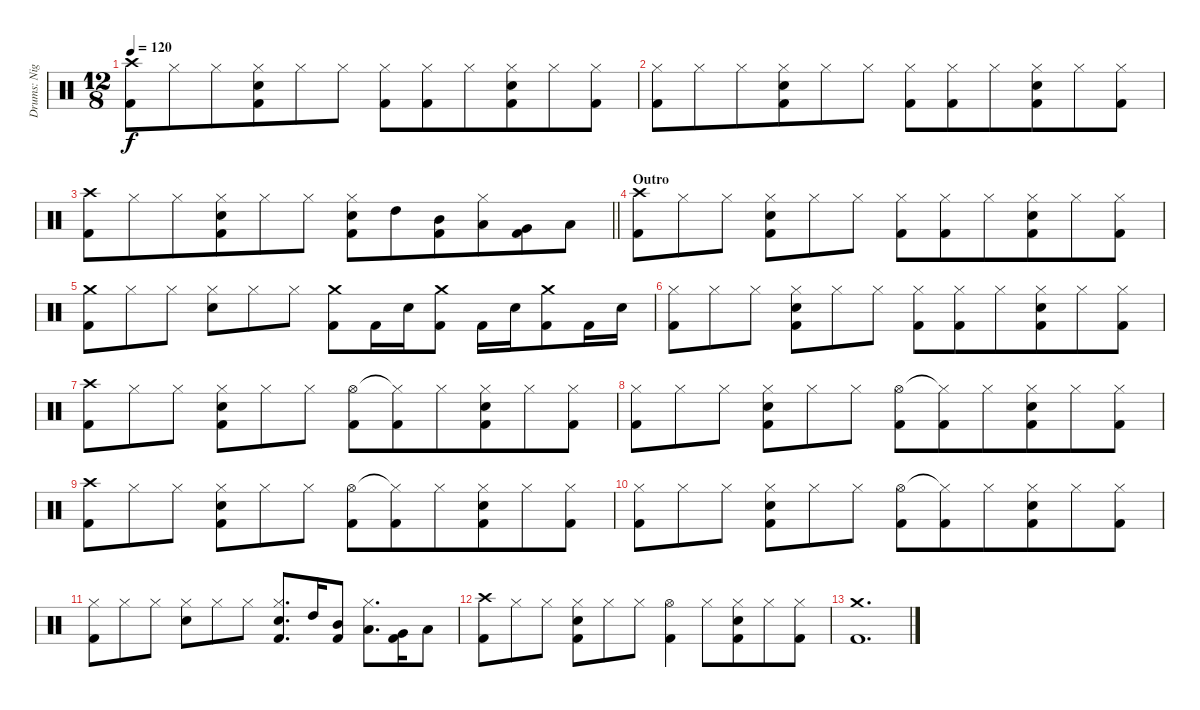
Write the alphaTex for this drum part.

\track ("Drums: Nigel" "Drums: Nig") {instrument percussion}
\staff {score}
\articulation defaults
\ts (12 8)
\tempo 120
\clef neutral
\ks c
("Crash high (hit)" "Kick (hit) 2").8{dy f} "Hi-Hat (closed)".8{beam merge} "Hi-Hat (closed)".8{beam merge} ("Hi-Hat (closed)" "Snare (hit) 2" "Kick (hit) 2").8{beam merge} "Hi-Hat (closed)".8 "Hi-Hat (closed)".8 ("Hi-Hat (closed)" "Kick (hit) 2").8 ("Hi-Hat (closed)" "Kick (hit) 2").8{beam merge} "Hi-Hat (closed)".8{beam merge} ("Hi-Hat (closed)" "Snare (hit) 2" "Kick (hit) 2").8 "Hi-Hat (closed)".8 ("Hi-Hat (closed)" "Kick (hit) 2").8 |
("Hi-Hat (closed)" "Kick (hit) 2").8 "Hi-Hat (closed)".8{beam merge} "Hi-Hat (closed)".8{beam merge} ("Hi-Hat (closed)" "Snare (hit) 2" "Kick (hit) 2").8{beam merge} "Hi-Hat (closed)".8 "Hi-Hat (closed)".8 ("Hi-Hat (closed)" "Kick (hit) 2").8 ("Hi-Hat (closed)" "Kick (hit) 2").8{beam merge} "Hi-Hat (closed)".8{beam merge} ("Hi-Hat (closed)" "Snare (hit) 2" "Kick (hit) 2").8 "Hi-Hat (closed)".8 ("Hi-Hat (closed)" "Kick (hit) 2").8 |
\barLineRight lightlight
("Crash high (hit)" "Kick (hit) 2").8 "Hi-Hat (closed)".8{beam merge} "Hi-Hat (closed)".8{beam merge} ("Hi-Hat (closed)" "Snare (hit) 2" "Kick (hit) 2").8{beam merge} "Hi-Hat (closed)".8 "Hi-Hat (closed)".8 ("Hi-Hat (closed)" "Snare (hit) 2" "Kick (hit) 2").8 "High Tom (hit)".8{beam merge} ("Mid Tom (hit)" "Kick (hit) 2").8{beam merge} ("Hi-Hat (closed)" "Low Tom (hit)").8 ("Very Low Tom (hit)" "Kick (hit) 2").8 "Low Floor Tom (hit)".8 |
\section ("" "Outro")
("Crash high (hit)" "Kick (hit) 2").8 "Hi-Hat (closed)".8{beam merge} "Hi-Hat (closed)".8 ("Hi-Hat (closed)" "Snare (hit) 2" "Kick (hit) 2").8{beam merge} "Hi-Hat (closed)".8 "Hi-Hat (closed)".8 ("Hi-Hat (closed)" "Kick (hit) 2").8 ("Hi-Hat (closed)" "Kick (hit) 2").8{beam merge} "Hi-Hat (closed)".8{beam merge} ("Hi-Hat (closed)" "Snare (hit) 2" "Kick (hit) 2").8 "Hi-Hat (closed)".8 ("Hi-Hat (closed)" "Kick (hit) 2").8 |
("Crash medium (hit)" "Kick (hit) 2").8 "Hi-Hat (closed)".8 "Hi-Hat (closed)".8 ("Hi-Hat (closed)" "Snare (hit) 2").8 "Hi-Hat (closed)".8 "Hi-Hat (closed)".8 ("Crash medium (hit)" "Kick (hit) 2").8 "Kick (hit) 2".16 "Snare (hit) 2".16 ("Crash medium (hit)" "Kick (hit) 2").8 "Kick (hit) 2".16 "Snare (hit) 2".16 ("Crash medium (hit)" "Kick (hit) 2").8 "Kick (hit) 2".16 "Snare (hit) 2".16 |
("Hi-Hat (closed)" "Kick (hit) 2").8 "Hi-Hat (closed)".8{beam merge} "Hi-Hat (closed)".8 ("Hi-Hat (closed)" "Snare (hit) 2" "Kick (hit) 2").8{beam merge} "Hi-Hat (closed)".8 "Hi-Hat (closed)".8 ("Hi-Hat (closed)" "Kick (hit) 2").8 ("Hi-Hat (closed)" "Kick (hit) 2").8{beam merge} "Hi-Hat (closed)".8{beam merge} ("Hi-Hat (closed)" "Snare (hit) 2" "Kick (hit) 2").8 "Hi-Hat (closed)".8 ("Hi-Hat (closed)" "Kick (hit) 2").8 |
("Crash high (hit)" "Kick (hit) 2").8 "Hi-Hat (closed)".8{beam merge} "Hi-Hat (closed)".8 ("Hi-Hat (closed)" "Snare (hit) 2" "Kick (hit) 2").8{beam merge} "Hi-Hat (closed)".8 "Hi-Hat (closed)".8 ("Hi-Hat (open)" "Kick (hit) 2").8 ("Hi-Hat (closed)"{t} "Kick (hit) 2").8{beam merge} "Hi-Hat (closed)".8{beam merge} ("Hi-Hat (closed)" "Snare (hit) 2" "Kick (hit) 2").8 "Hi-Hat (closed)".8 ("Hi-Hat (closed)" "Kick (hit) 2").8 |
("Hi-Hat (closed)" "Kick (hit) 2").8 "Hi-Hat (closed)".8{beam merge} "Hi-Hat (closed)".8 ("Hi-Hat (closed)" "Snare (hit) 2" "Kick (hit) 2").8{beam merge} "Hi-Hat (closed)".8 "Hi-Hat (closed)".8 ("Hi-Hat (open)" "Kick (hit) 2").8 ("Hi-Hat (closed)"{t} "Kick (hit) 2").8{beam merge} "Hi-Hat (closed)".8{beam merge} ("Hi-Hat (closed)" "Snare (hit) 2" "Kick (hit) 2").8 "Hi-Hat (closed)".8 ("Hi-Hat (closed)" "Kick (hit) 2").8 |
("Crash high (hit)" "Kick (hit) 2").8 "Hi-Hat (closed)".8{beam merge} "Hi-Hat (closed)".8 ("Hi-Hat (closed)" "Snare (hit) 2" "Kick (hit) 2").8{beam merge} "Hi-Hat (closed)".8 "Hi-Hat (closed)".8 ("Hi-Hat (open)" "Kick (hit) 2").8 ("Hi-Hat (closed)"{t} "Kick (hit) 2").8{beam merge} "Hi-Hat (closed)".8{beam merge} ("Hi-Hat (closed)" "Snare (hit) 2" "Kick (hit) 2").8 "Hi-Hat (closed)".8 ("Hi-Hat (closed)" "Kick (hit) 2").8 |
("Hi-Hat (closed)" "Kick (hit) 2").8 "Hi-Hat (closed)".8{beam merge} "Hi-Hat (closed)".8 ("Hi-Hat (closed)" "Snare (hit) 2" "Kick (hit) 2").8{beam merge} "Hi-Hat (closed)".8 "Hi-Hat (closed)".8 ("Hi-Hat (open)" "Kick (hit) 2").8 ("Hi-Hat (closed)"{t} "Kick (hit) 2").8{beam merge} "Hi-Hat (closed)".8{beam merge} ("Hi-Hat (closed)" "Snare (hit) 2" "Kick (hit) 2").8 "Hi-Hat (closed)".8 ("Hi-Hat (closed)" "Kick (hit) 2").8 |
("Hi-Hat (closed)" "Kick (hit) 2").8 "Hi-Hat (closed)".8 "Hi-Hat (closed)".8 ("Hi-Hat (closed)" "Snare (hit) 2").8 "Hi-Hat (closed)".8 "Hi-Hat (closed)".8 ("Hi-Hat (closed)" "Snare (hit) 2" "Kick (hit) 2").8{d} "High Tom (hit)".16 ("Mid Tom (hit)" "Kick (hit) 2").8 ("Hi-Hat (closed)" "Low Tom (hit)").8{d} ("Very Low Tom (hit)" "Kick (hit) 2").16 "Low Floor Tom (hit)".8 |
("Crash high (hit)" "Kick (hit) 2").8 "Hi-Hat (closed)".8{beam merge} "Hi-Hat (closed)".8 ("Hi-Hat (closed)" "Snare (hit) 2" "Kick (hit) 2").8{beam merge} "Hi-Hat (closed)".8 "Hi-Hat (closed)".8 ("Hi-Hat (open)" "Kick (hit) 2").4{beam merge} "Hi-Hat (closed)".8{beam merge} ("Hi-Hat (closed)" "Snare (hit) 2" "Kick (hit) 2").8 "Hi-Hat (closed)".8 ("Hi-Hat (closed)" "Kick (hit) 2").8 |
("Crash medium (hit)" "Kick (hit) 2").1{d}
